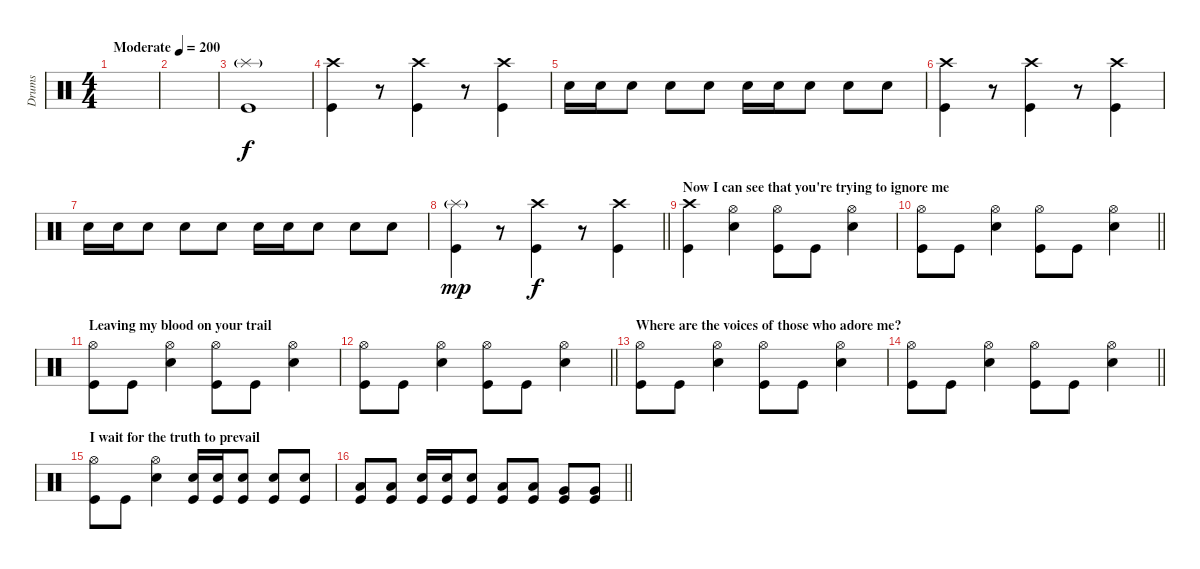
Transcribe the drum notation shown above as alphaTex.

\track ("Drums" "Drums") {instrument percussion}
\staff {score}
\articulation defaults
\ts (4 4)
\tempo (200 "Moderate")
\clef neutral
\ks c
|
|
("Splash (hit)"{g} "Kick (hit)").1 |
("Crash high (hit)" "Kick (hit)").4{dy f} r.8 ("Crash high (hit)" "Kick (hit)").4 r.8 ("Crash high (hit)" "Kick (hit)").4 |
"Snare (hit) 2".16 "Snare (hit) 2".16 "Snare (hit) 2".8 "Snare (hit) 2".8 "Snare (hit) 2".8 "Snare (hit) 2".16 "Snare (hit) 2".16 "Snare (hit) 2".8 "Snare (hit) 2".8 "Snare (hit) 2".8 |
("Crash high (hit)" "Kick (hit)").4 r.8 ("Crash high (hit)" "Kick (hit)").4 r.8 ("Crash high (hit)" "Kick (hit)").4 |
"Snare (hit) 2".16 "Snare (hit) 2".16 "Snare (hit) 2".8 "Snare (hit) 2".8 "Snare (hit) 2".8 "Snare (hit) 2".16 "Snare (hit) 2".16 "Snare (hit) 2".8 "Snare (hit) 2".8 "Snare (hit) 2".8 |
\barLineRight lightlight
("Splash (hit)"{g} "Kick (hit)").4{dy mp} r.8 ("Crash high (hit)" "Kick (hit)").4{dy f} r.8 ("Crash high (hit)" "Kick (hit)").4 |
\section ("" "Now I can see that you're trying to ignore me")
("Crash high (hit)" "Kick (hit)").4 ("Hi-Hat (open)" "Snare (hit) 2").4 ("Hi-Hat (open)" "Kick (hit)").8 "Kick (hit)".8 ("Hi-Hat (open)" "Snare (hit) 2").4 |
\barLineRight lightlight
("Hi-Hat (open)" "Kick (hit)").8 "Kick (hit)".8 ("Hi-Hat (open)" "Snare (hit) 2").4 ("Hi-Hat (open)" "Kick (hit)").8 "Kick (hit)".8 ("Hi-Hat (open)" "Snare (hit) 2").4 |
\section ("" "Leaving my blood on your trail")
("Hi-Hat (open)" "Kick (hit)").8 "Kick (hit)".8 ("Hi-Hat (open)" "Snare (hit) 2").4 ("Hi-Hat (open)" "Kick (hit)").8 "Kick (hit)".8 ("Hi-Hat (open)" "Snare (hit) 2").4 |
\barLineRight lightlight
("Hi-Hat (open)" "Kick (hit)").8 "Kick (hit)".8 ("Hi-Hat (open)" "Snare (hit) 2").4 ("Hi-Hat (open)" "Kick (hit)").8 "Kick (hit)".8 ("Hi-Hat (open)" "Snare (hit) 2").4 |
\section ("" "Where are the voices of those who adore me?")
("Hi-Hat (open)" "Kick (hit)").8 "Kick (hit)".8 ("Hi-Hat (open)" "Snare (hit) 2").4 ("Hi-Hat (open)" "Kick (hit)").8 "Kick (hit)".8 ("Hi-Hat (open)" "Snare (hit) 2").4 |
\barLineRight lightlight
("Hi-Hat (open)" "Kick (hit)").8 "Kick (hit)".8 ("Hi-Hat (open)" "Snare (hit) 2").4 ("Hi-Hat (open)" "Kick (hit)").8 "Kick (hit)".8 ("Hi-Hat (open)" "Snare (hit) 2").4 |
\section ("" "I wait for the truth to prevail")
("Hi-Hat (open)" "Kick (hit)").8 "Kick (hit)".8 ("Hi-Hat (open)" "Snare (hit) 2").4 ("Snare (hit) 2" "Kick (hit)").16 ("Snare (hit) 2" "Kick (hit)").16 ("Snare (hit) 2" "Kick (hit)").8 ("Snare (hit) 2" "Kick (hit)").8 ("Snare (hit) 2" "Kick (hit)").8 |
\barLineRight lightlight
("Low Tom (hit)" "Kick (hit)").8 ("Low Tom (hit)" "Kick (hit)").8 ("Snare (hit) 2" "Kick (hit)").16 ("Snare (hit) 2" "Kick (hit)").16 ("Snare (hit) 2" "Kick (hit)").8 ("Low Tom (hit)" "Kick (hit)").8 ("Low Tom (hit)" "Kick (hit)").8 ("Very Low Tom (hit)" "Kick (hit)").8 ("Very Low Tom (hit)" "Kick (hit)").8
